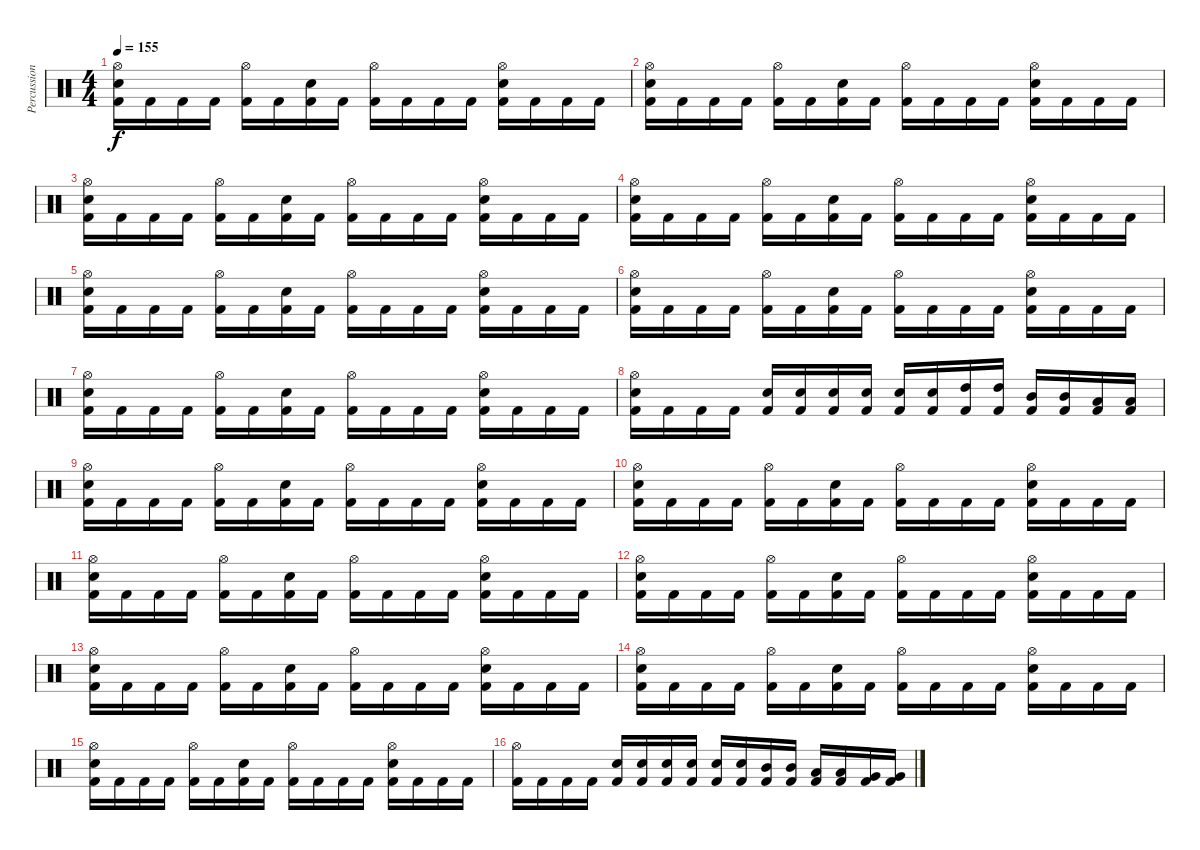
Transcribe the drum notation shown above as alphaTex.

\track ("Percussion" "Percussion") {instrument percussion}
\staff {score}
\articulation defaults
\ts (4 4)
\tempo 155
\clef neutral
\ks c
("Hi-Hat (open)" "Electric Snare (hit)" "Kick (hit) 2").16{dy f} "Kick (hit) 2".16 "Kick (hit) 2".16 "Kick (hit) 2".16 ("Hi-Hat (open)" "Kick (hit) 2").16 "Kick (hit) 2".16 ("Electric Snare (hit)" "Kick (hit) 2").16 "Kick (hit) 2".16 ("Hi-Hat (open)" "Kick (hit) 2").16 "Kick (hit) 2".16 "Kick (hit) 2".16 "Kick (hit) 2".16 ("Hi-Hat (open)" "Electric Snare (hit)" "Kick (hit) 2").16 "Kick (hit) 2".16 "Kick (hit) 2".16 "Kick (hit) 2".16 |
("Hi-Hat (open)" "Electric Snare (hit)" "Kick (hit) 2").16 "Kick (hit) 2".16 "Kick (hit) 2".16 "Kick (hit) 2".16 ("Hi-Hat (open)" "Kick (hit) 2").16 "Kick (hit) 2".16 ("Electric Snare (hit)" "Kick (hit) 2").16 "Kick (hit) 2".16 ("Hi-Hat (open)" "Kick (hit) 2").16 "Kick (hit) 2".16 "Kick (hit) 2".16 "Kick (hit) 2".16 ("Hi-Hat (open)" "Electric Snare (hit)" "Kick (hit) 2").16 "Kick (hit) 2".16 "Kick (hit) 2".16 "Kick (hit) 2".16 |
("Hi-Hat (open)" "Electric Snare (hit)" "Kick (hit) 2").16 "Kick (hit) 2".16 "Kick (hit) 2".16 "Kick (hit) 2".16 ("Hi-Hat (open)" "Kick (hit) 2").16 "Kick (hit) 2".16 ("Electric Snare (hit)" "Kick (hit) 2").16 "Kick (hit) 2".16 ("Hi-Hat (open)" "Kick (hit) 2").16 "Kick (hit) 2".16 "Kick (hit) 2".16 "Kick (hit) 2".16 ("Hi-Hat (open)" "Electric Snare (hit)" "Kick (hit) 2").16 "Kick (hit) 2".16 "Kick (hit) 2".16 "Kick (hit) 2".16 |
("Hi-Hat (open)" "Electric Snare (hit)" "Kick (hit) 2").16 "Kick (hit) 2".16 "Kick (hit) 2".16 "Kick (hit) 2".16 ("Hi-Hat (open)" "Kick (hit) 2").16 "Kick (hit) 2".16 ("Electric Snare (hit)" "Kick (hit) 2").16 "Kick (hit) 2".16 ("Hi-Hat (open)" "Kick (hit) 2").16 "Kick (hit) 2".16 "Kick (hit) 2".16 "Kick (hit) 2".16 ("Hi-Hat (open)" "Electric Snare (hit)" "Kick (hit) 2").16 "Kick (hit) 2".16 "Kick (hit) 2".16 "Kick (hit) 2".16 |
("Hi-Hat (open)" "Electric Snare (hit)" "Kick (hit) 2").16 "Kick (hit) 2".16 "Kick (hit) 2".16 "Kick (hit) 2".16 ("Hi-Hat (open)" "Kick (hit) 2").16 "Kick (hit) 2".16 ("Electric Snare (hit)" "Kick (hit) 2").16 "Kick (hit) 2".16 ("Hi-Hat (open)" "Kick (hit) 2").16 "Kick (hit) 2".16 "Kick (hit) 2".16 "Kick (hit) 2".16 ("Hi-Hat (open)" "Electric Snare (hit)" "Kick (hit) 2").16 "Kick (hit) 2".16 "Kick (hit) 2".16 "Kick (hit) 2".16 |
("Hi-Hat (open)" "Electric Snare (hit)" "Kick (hit) 2").16 "Kick (hit) 2".16 "Kick (hit) 2".16 "Kick (hit) 2".16 ("Hi-Hat (open)" "Kick (hit) 2").16 "Kick (hit) 2".16 ("Electric Snare (hit)" "Kick (hit) 2").16 "Kick (hit) 2".16 ("Hi-Hat (open)" "Kick (hit) 2").16 "Kick (hit) 2".16 "Kick (hit) 2".16 "Kick (hit) 2".16 ("Hi-Hat (open)" "Electric Snare (hit)" "Kick (hit) 2").16 "Kick (hit) 2".16 "Kick (hit) 2".16 "Kick (hit) 2".16 |
("Hi-Hat (open)" "Electric Snare (hit)" "Kick (hit) 2").16 "Kick (hit) 2".16 "Kick (hit) 2".16 "Kick (hit) 2".16 ("Hi-Hat (open)" "Kick (hit) 2").16 "Kick (hit) 2".16 ("Electric Snare (hit)" "Kick (hit) 2").16 "Kick (hit) 2".16 ("Hi-Hat (open)" "Kick (hit) 2").16 "Kick (hit) 2".16 "Kick (hit) 2".16 "Kick (hit) 2".16 ("Hi-Hat (open)" "Electric Snare (hit)" "Kick (hit) 2").16 "Kick (hit) 2".16 "Kick (hit) 2".16 "Kick (hit) 2".16 |
("Hi-Hat (open)" "Electric Snare (hit)" "Kick (hit) 2").16 "Kick (hit) 2".16 "Kick (hit) 2".16 "Kick (hit) 2".16 ("Electric Snare (hit)" "Kick (hit) 2").16 ("Electric Snare (hit)" "Kick (hit) 2").16 ("Electric Snare (hit)" "Kick (hit) 2").16 ("Electric Snare (hit)" "Kick (hit) 2").16 ("Electric Snare (hit)" "Kick (hit) 2").16 ("Electric Snare (hit)" "Kick (hit) 2").16 ("High Tom (hit)" "Kick (hit) 2").16 ("High Tom (hit)" "Kick (hit) 2").16 ("Mid Tom (hit)" "Kick (hit) 2").16 ("Mid Tom (hit)" "Kick (hit) 2").16 ("Low Tom (hit)" "Kick (hit) 2").16 ("Low Tom (hit)" "Kick (hit) 2").16 |
("Hi-Hat (open)" "Electric Snare (hit)" "Kick (hit) 2").16 "Kick (hit) 2".16 "Kick (hit) 2".16 "Kick (hit) 2".16 ("Hi-Hat (open)" "Kick (hit) 2").16 "Kick (hit) 2".16 ("Electric Snare (hit)" "Kick (hit) 2").16 "Kick (hit) 2".16 ("Hi-Hat (open)" "Kick (hit) 2").16 "Kick (hit) 2".16 "Kick (hit) 2".16 "Kick (hit) 2".16 ("Hi-Hat (open)" "Electric Snare (hit)" "Kick (hit) 2").16 "Kick (hit) 2".16 "Kick (hit) 2".16 "Kick (hit) 2".16 |
("Hi-Hat (open)" "Electric Snare (hit)" "Kick (hit) 2").16 "Kick (hit) 2".16 "Kick (hit) 2".16 "Kick (hit) 2".16 ("Hi-Hat (open)" "Kick (hit) 2").16 "Kick (hit) 2".16 ("Electric Snare (hit)" "Kick (hit) 2").16 "Kick (hit) 2".16 ("Hi-Hat (open)" "Kick (hit) 2").16 "Kick (hit) 2".16 "Kick (hit) 2".16 "Kick (hit) 2".16 ("Hi-Hat (open)" "Electric Snare (hit)" "Kick (hit) 2").16 "Kick (hit) 2".16 "Kick (hit) 2".16 "Kick (hit) 2".16 |
("Hi-Hat (open)" "Electric Snare (hit)" "Kick (hit) 2").16 "Kick (hit) 2".16 "Kick (hit) 2".16 "Kick (hit) 2".16 ("Hi-Hat (open)" "Kick (hit) 2").16 "Kick (hit) 2".16 ("Electric Snare (hit)" "Kick (hit) 2").16 "Kick (hit) 2".16 ("Hi-Hat (open)" "Kick (hit) 2").16 "Kick (hit) 2".16 "Kick (hit) 2".16 "Kick (hit) 2".16 ("Hi-Hat (open)" "Electric Snare (hit)" "Kick (hit) 2").16 "Kick (hit) 2".16 "Kick (hit) 2".16 "Kick (hit) 2".16 |
("Hi-Hat (open)" "Electric Snare (hit)" "Kick (hit) 2").16 "Kick (hit) 2".16 "Kick (hit) 2".16 "Kick (hit) 2".16 ("Hi-Hat (open)" "Kick (hit) 2").16 "Kick (hit) 2".16 ("Electric Snare (hit)" "Kick (hit) 2").16 "Kick (hit) 2".16 ("Hi-Hat (open)" "Kick (hit) 2").16 "Kick (hit) 2".16 "Kick (hit) 2".16 "Kick (hit) 2".16 ("Hi-Hat (open)" "Electric Snare (hit)" "Kick (hit) 2").16 "Kick (hit) 2".16 "Kick (hit) 2".16 "Kick (hit) 2".16 |
("Hi-Hat (open)" "Electric Snare (hit)" "Kick (hit) 2").16 "Kick (hit) 2".16 "Kick (hit) 2".16 "Kick (hit) 2".16 ("Hi-Hat (open)" "Kick (hit) 2").16 "Kick (hit) 2".16 ("Electric Snare (hit)" "Kick (hit) 2").16 "Kick (hit) 2".16 ("Hi-Hat (open)" "Kick (hit) 2").16 "Kick (hit) 2".16 "Kick (hit) 2".16 "Kick (hit) 2".16 ("Hi-Hat (open)" "Electric Snare (hit)" "Kick (hit) 2").16 "Kick (hit) 2".16 "Kick (hit) 2".16 "Kick (hit) 2".16 |
("Hi-Hat (open)" "Electric Snare (hit)" "Kick (hit) 2").16 "Kick (hit) 2".16 "Kick (hit) 2".16 "Kick (hit) 2".16 ("Hi-Hat (open)" "Kick (hit) 2").16 "Kick (hit) 2".16 ("Electric Snare (hit)" "Kick (hit) 2").16 "Kick (hit) 2".16 ("Hi-Hat (open)" "Kick (hit) 2").16 "Kick (hit) 2".16 "Kick (hit) 2".16 "Kick (hit) 2".16 ("Hi-Hat (open)" "Electric Snare (hit)" "Kick (hit) 2").16 "Kick (hit) 2".16 "Kick (hit) 2".16 "Kick (hit) 2".16 |
("Hi-Hat (open)" "Electric Snare (hit)" "Kick (hit) 2").16 "Kick (hit) 2".16 "Kick (hit) 2".16 "Kick (hit) 2".16 ("Hi-Hat (open)" "Kick (hit) 2").16 "Kick (hit) 2".16 ("Electric Snare (hit)" "Kick (hit) 2").16 "Kick (hit) 2".16 ("Hi-Hat (open)" "Kick (hit) 2").16 "Kick (hit) 2".16 "Kick (hit) 2".16 "Kick (hit) 2".16 ("Hi-Hat (open)" "Electric Snare (hit)" "Kick (hit) 2").16 "Kick (hit) 2".16 "Kick (hit) 2".16 "Kick (hit) 2".16 |
("Hi-Hat (open)" "Kick (hit) 2").16 "Kick (hit) 2".16 "Kick (hit) 2".16 "Kick (hit) 2".16 ("Electric Snare (hit)" "Kick (hit) 2").16 ("Electric Snare (hit)" "Kick (hit) 2").16 ("Electric Snare (hit)" "Kick (hit) 2").16 ("Electric Snare (hit)" "Kick (hit) 2").16 ("Electric Snare (hit)" "Kick (hit) 2").16 ("Electric Snare (hit)" "Kick (hit) 2").16 ("Mid Tom (hit)" "Kick (hit) 2").16 ("Mid Tom (hit)" "Kick (hit) 2").16 ("Low Tom (hit)" "Kick (hit) 2").16 ("Low Tom (hit)" "Kick (hit) 2").16 ("Very Low Tom (hit)" "Kick (hit) 2").16 ("Very Low Tom (hit)" "Kick (hit) 2").16
